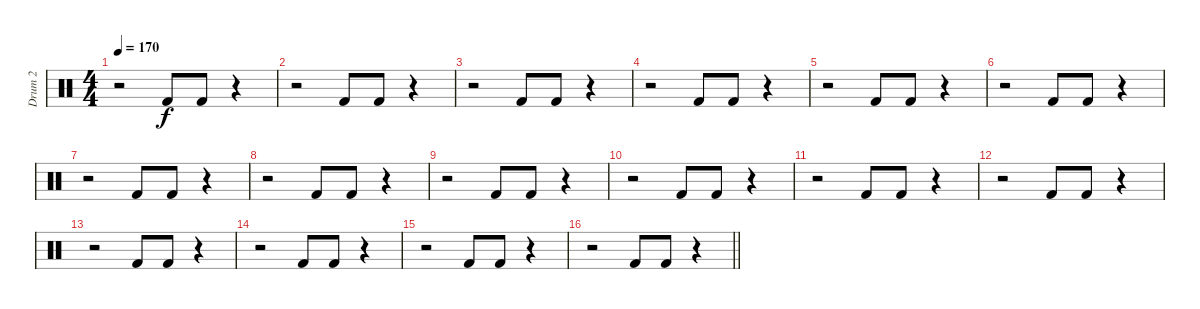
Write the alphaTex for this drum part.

\track ("Drum 2" "Drum 2") {instrument percussion}
\staff {score}
\articulation defaults
\ts (4 4)
\tempo 170
\clef neutral
\ks c
r.2{dy f} "Kick (hit) 2".8 "Kick (hit) 2".8 r.4 |
r.2 "Kick (hit) 2".8 "Kick (hit) 2".8 r.4 |
r.2 "Kick (hit) 2".8 "Kick (hit) 2".8 r.4 |
r.2 "Kick (hit) 2".8 "Kick (hit) 2".8 r.4 |
r.2 "Kick (hit) 2".8 "Kick (hit) 2".8 r.4 |
r.2 "Kick (hit) 2".8 "Kick (hit) 2".8 r.4 |
r.2 "Kick (hit) 2".8 "Kick (hit) 2".8 r.4 |
r.2 "Kick (hit) 2".8 "Kick (hit) 2".8 r.4 |
r.2 "Kick (hit) 2".8 "Kick (hit) 2".8 r.4 |
r.2 "Kick (hit) 2".8 "Kick (hit) 2".8 r.4 |
r.2 "Kick (hit) 2".8 "Kick (hit) 2".8 r.4 |
r.2 "Kick (hit) 2".8 "Kick (hit) 2".8 r.4 |
r.2 "Kick (hit) 2".8 "Kick (hit) 2".8 r.4 |
r.2 "Kick (hit) 2".8 "Kick (hit) 2".8 r.4 |
r.2 "Kick (hit) 2".8 "Kick (hit) 2".8 r.4 |
\barLineRight lightlight
r.2 "Kick (hit) 2".8 "Kick (hit) 2".8 r.4
